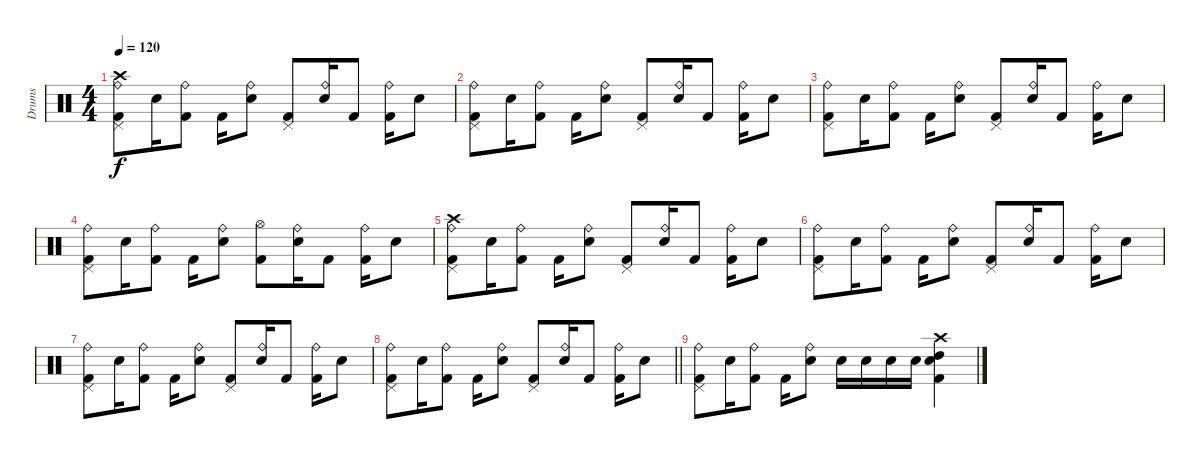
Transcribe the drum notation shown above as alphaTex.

\track ("Drums" "Drums") {instrument percussion}
\staff {score}
\articulation defaults
\ts (4 4)
\tempo 120
\clef neutral
\ks c
("Ride (bell)" "Pedal Hi-Hat (hit)" "Crash high (hit)" "Kick (hit) 2").8{dy f} "Electric Snare (hit)".16 ("Ride (bell)" "Kick (hit) 2").8 "Kick (hit) 2".16 ("Ride (bell)" "Electric Snare (hit)").8 ("Pedal Hi-Hat (hit)" "Kick (hit) 2").8 ("Ride (bell)" "Electric Snare (hit)").16 "Kick (hit) 2".8 ("Ride (bell)" "Kick (hit) 2").16 "Electric Snare (hit)".8 |
("Ride (bell)" "Pedal Hi-Hat (hit)" "Kick (hit) 2").8 "Electric Snare (hit)".16 ("Ride (bell)" "Kick (hit) 2").8 "Kick (hit) 2".16 ("Ride (bell)" "Electric Snare (hit)").8 ("Pedal Hi-Hat (hit)" "Kick (hit) 2").8 ("Ride (bell)" "Electric Snare (hit)").16 "Kick (hit) 2".8 ("Ride (bell)" "Kick (hit) 2").16 "Electric Snare (hit)".8 |
("Ride (bell)" "Pedal Hi-Hat (hit)" "Kick (hit) 2").8 "Electric Snare (hit)".16 ("Ride (bell)" "Kick (hit) 2").8 "Kick (hit) 2".16 ("Ride (bell)" "Electric Snare (hit)").8 ("Pedal Hi-Hat (hit)" "Kick (hit) 2").8 ("Ride (bell)" "Electric Snare (hit)").16 "Kick (hit) 2".8 ("Ride (bell)" "Kick (hit) 2").16 "Electric Snare (hit)".8 |
("Ride (bell)" "Pedal Hi-Hat (hit)" "Kick (hit) 2").8 "Electric Snare (hit)".16 ("Ride (bell)" "Kick (hit) 2").8 "Kick (hit) 2".16 ("Ride (bell)" "Electric Snare (hit)").8 ("Hi-Hat (open)" "Kick (hit) 2").8 ("Ride (bell)" "Electric Snare (hit)").16 "Kick (hit) 2".8 ("Ride (bell)" "Kick (hit) 2").16 "Electric Snare (hit)".8 |
("Ride (bell)" "Pedal Hi-Hat (hit)" "Crash high (hit)" "Kick (hit) 2").8 "Electric Snare (hit)".16 ("Ride (bell)" "Kick (hit) 2").8 "Kick (hit) 2".16 ("Ride (bell)" "Electric Snare (hit)").8 ("Pedal Hi-Hat (hit)" "Kick (hit) 2").8 ("Ride (bell)" "Electric Snare (hit)").16 "Kick (hit) 2".8 ("Ride (bell)" "Kick (hit) 2").16 "Electric Snare (hit)".8 |
("Ride (bell)" "Pedal Hi-Hat (hit)" "Kick (hit) 2").8 "Electric Snare (hit)".16 ("Ride (bell)" "Kick (hit) 2").8 "Kick (hit) 2".16 ("Ride (bell)" "Electric Snare (hit)").8 ("Pedal Hi-Hat (hit)" "Kick (hit) 2").8 ("Ride (bell)" "Electric Snare (hit)").16 "Kick (hit) 2".8 ("Ride (bell)" "Kick (hit) 2").16 "Electric Snare (hit)".8 |
("Ride (bell)" "Pedal Hi-Hat (hit)" "Kick (hit) 2").8 "Electric Snare (hit)".16 ("Ride (bell)" "Kick (hit) 2").8 "Kick (hit) 2".16 ("Ride (bell)" "Electric Snare (hit)").8 ("Pedal Hi-Hat (hit)" "Kick (hit) 2").8 ("Ride (bell)" "Electric Snare (hit)").16 "Kick (hit) 2".8 ("Ride (bell)" "Kick (hit) 2").16 "Electric Snare (hit)".8 |
\barLineRight lightlight
("Ride (bell)" "Pedal Hi-Hat (hit)" "Kick (hit) 2").8 "Electric Snare (hit)".16 ("Ride (bell)" "Kick (hit) 2").8 "Kick (hit) 2".16 ("Ride (bell)" "Electric Snare (hit)").8 ("Pedal Hi-Hat (hit)" "Kick (hit) 2").8 ("Ride (bell)" "Electric Snare (hit)").16 "Kick (hit) 2".8 ("Ride (bell)" "Kick (hit) 2").16 "Electric Snare (hit)".8 |
("Ride (bell)" "Pedal Hi-Hat (hit)" "Kick (hit) 2").8 "Electric Snare (hit)".16 ("Ride (bell)" "Kick (hit) 2").8 "Kick (hit) 2".16 ("Ride (bell)" "Electric Snare (hit)").8 "Electric Snare (hit)".16 "Electric Snare (hit)".16 "Electric Snare (hit)".16 "Electric Snare (hit)".16 ("Electric Snare (hit)" "Crash high (hit)" "Kick (hit) 2" "High Tom (hit)").4
